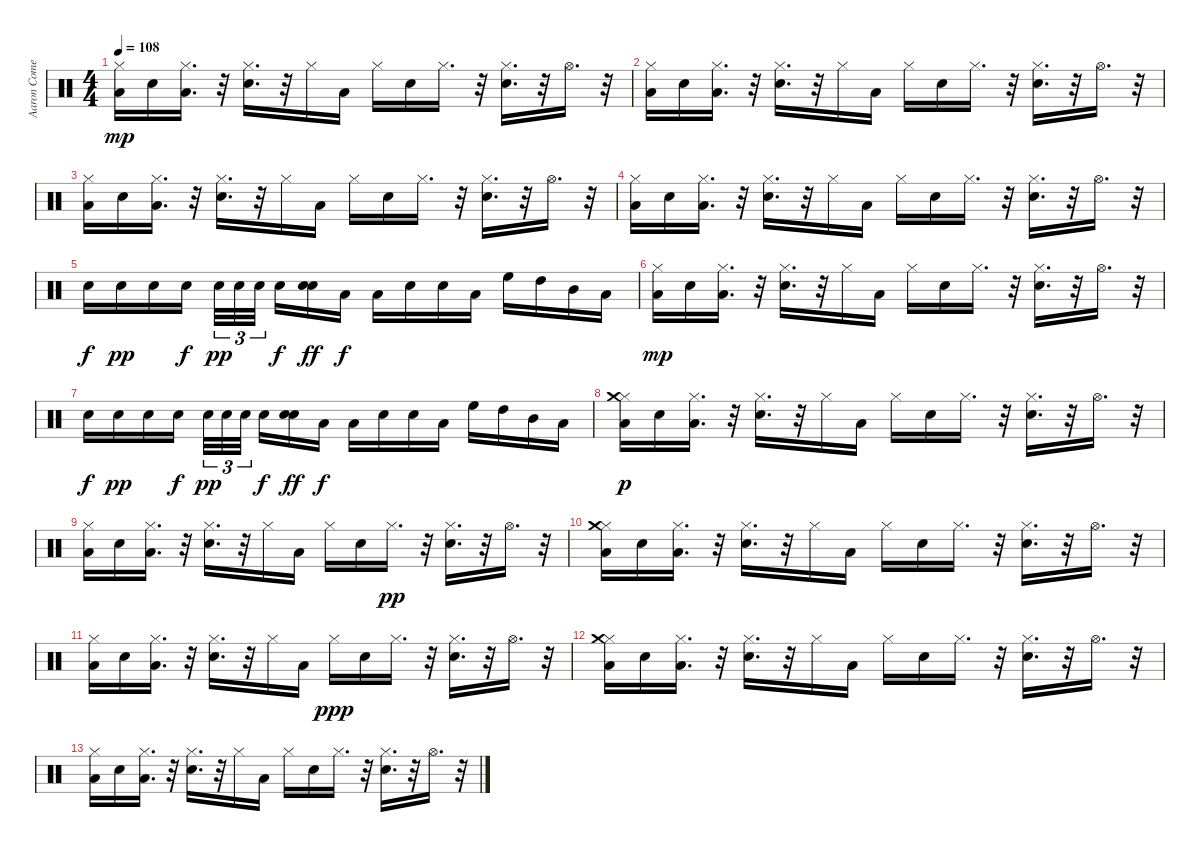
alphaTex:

\track ("Aaron Comess" "Aaron Come") {instrument percussion}
\staff {score}
\articulation defaults
\ts (4 4)
\tempo 108
\clef neutral
\ks c
("Low Tom (hit)" "Hi-Hat (closed)").16{dy mp} "Electric Snare (hit)".16 ("Low Tom (hit)" "Hi-Hat (closed)").16{d} r.32 ("Snare (hit) 2" "Hi-Hat (closed)").16{d} r.32 "Hi-Hat (closed)".16 "Low Tom (hit)".16 "Hi-Hat (closed)".16 "Snare (hit) 2".16 "Hi-Hat (closed)".16{d} r.32 ("Snare (hit) 2" "Hi-Hat (closed)").16{d} r.32 "Hi-Hat (open)".16{d} r.32 |
("Low Tom (hit)" "Hi-Hat (closed)").16 "Electric Snare (hit)".16 ("Low Tom (hit)" "Hi-Hat (closed)").16{d} r.32 ("Snare (hit) 2" "Hi-Hat (closed)").16{d} r.32 "Hi-Hat (closed)".16 "Low Tom (hit)".16 "Hi-Hat (closed)".16 "Snare (hit) 2".16 "Hi-Hat (closed)".16{d} r.32 ("Snare (hit) 2" "Hi-Hat (closed)").16{d} r.32 "Hi-Hat (open)".16{d} r.32 |
("Low Tom (hit)" "Hi-Hat (closed)").16 "Electric Snare (hit)".16 ("Low Tom (hit)" "Hi-Hat (closed)").16{d} r.32 ("Snare (hit) 2" "Hi-Hat (closed)").16{d} r.32 "Hi-Hat (closed)".16 "Low Tom (hit)".16 "Hi-Hat (closed)".16 "Snare (hit) 2".16 "Hi-Hat (closed)".16{d} r.32 ("Snare (hit) 2" "Hi-Hat (closed)").16{d} r.32 "Hi-Hat (open)".16{d} r.32 |
("Low Tom (hit)" "Hi-Hat (closed)").16 "Electric Snare (hit)".16 ("Low Tom (hit)" "Hi-Hat (closed)").16{d} r.32 ("Snare (hit) 2" "Hi-Hat (closed)").16{d} r.32 "Hi-Hat (closed)".16 "Low Tom (hit)".16 "Hi-Hat (closed)".16 "Snare (hit) 2".16 "Hi-Hat (closed)".16{d} r.32 ("Snare (hit) 2" "Hi-Hat (closed)").16{d} r.32 "Hi-Hat (open)".16{d} r.32 |
"Snare (hit) 2".16{dy f} "Snare (hit) 2".16{dy pp} "Snare (hit) 2".16 "Snare (hit) 2".16{dy f} "Snare (hit) 2".32{tu (3 2) dy pp} "Snare (hit) 2".32{tu (3 2)} "Snare (hit) 2".32{tu (3 2) beam splitsecondary} "Snare (hit) 2".16{dy f} ("Snare (hit) 2" "Electric Snare (hit)").16{dy ff} "Low Tom (hit)".16{dy f} "Low Tom (hit)".16 "Snare (hit) 2".16 "Snare (hit) 2".16 "Low Tom (hit)".16 "High Floor Tom (hit)".16 "High Tom (hit)".16 "Mid Tom (hit)".16 "Low Tom (hit)".16 |
("Low Tom (hit)" "Hi-Hat (closed)").16{dy mp} "Electric Snare (hit)".16 ("Low Tom (hit)" "Hi-Hat (closed)").16{d} r.32 ("Snare (hit) 2" "Hi-Hat (closed)").16{d} r.32 "Hi-Hat (closed)".16 "Low Tom (hit)".16 "Hi-Hat (closed)".16 "Snare (hit) 2".16 "Hi-Hat (closed)".16{d} r.32 ("Snare (hit) 2" "Hi-Hat (closed)").16{d} r.32 "Hi-Hat (open)".16{d} r.32 |
"Snare (hit) 2".16{dy f} "Snare (hit) 2".16{dy pp} "Snare (hit) 2".16 "Snare (hit) 2".16{dy f} "Snare (hit) 2".32{tu (3 2) dy pp} "Snare (hit) 2".32{tu (3 2)} "Snare (hit) 2".32{tu (3 2) beam splitsecondary} "Snare (hit) 2".16{dy f} ("Snare (hit) 2" "Electric Snare (hit)").16{dy ff} "Low Tom (hit)".16{dy f} "Low Tom (hit)".16 "Snare (hit) 2".16 "Snare (hit) 2".16 "Low Tom (hit)".16 "High Floor Tom (hit)".16 "High Tom (hit)".16 "Mid Tom (hit)".16 "Low Tom (hit)".16 |
("Low Tom (hit)" "Hi-Hat (closed)" "Crash medium (hit)").16{dy p} "Electric Snare (hit)".16 ("Low Tom (hit)" "Hi-Hat (closed)").16{d} r.32 ("Snare (hit) 2" "Hi-Hat (closed)").16{d} r.32 "Hi-Hat (closed)".16 "Low Tom (hit)".16 "Hi-Hat (closed)".16 "Snare (hit) 2".16 "Hi-Hat (closed)".16{d} r.32 ("Snare (hit) 2" "Hi-Hat (closed)").16{d} r.32 "Hi-Hat (open)".16{d} r.32 |
("Low Tom (hit)" "Hi-Hat (closed)").16 "Electric Snare (hit)".16 ("Low Tom (hit)" "Hi-Hat (closed)").16{d} r.32 ("Snare (hit) 2" "Hi-Hat (closed)").16{d} r.32 "Hi-Hat (closed)".16 "Low Tom (hit)".16 "Hi-Hat (closed)".16 "Snare (hit) 2".16 "Hi-Hat (closed)".16{d dy pp} r.32 ("Snare (hit) 2" "Hi-Hat (closed)").16{d} r.32 "Hi-Hat (open)".16{d} r.32 |
("Low Tom (hit)" "Hi-Hat (closed)" "Crash medium (hit)").16 "Electric Snare (hit)".16 ("Low Tom (hit)" "Hi-Hat (closed)").16{d} r.32 ("Snare (hit) 2" "Hi-Hat (closed)").16{d} r.32 "Hi-Hat (closed)".16 "Low Tom (hit)".16 "Hi-Hat (closed)".16 "Snare (hit) 2".16 "Hi-Hat (closed)".16{d} r.32 ("Snare (hit) 2" "Hi-Hat (closed)").16{d} r.32 "Hi-Hat (open)".16{d} r.32 |
("Low Tom (hit)" "Hi-Hat (closed)").16 "Electric Snare (hit)".16 ("Low Tom (hit)" "Hi-Hat (closed)").16{d} r.32 ("Snare (hit) 2" "Hi-Hat (closed)").16{d} r.32 "Hi-Hat (closed)".16 "Low Tom (hit)".16 "Hi-Hat (closed)".16{dy ppp} "Snare (hit) 2".16 "Hi-Hat (closed)".16{d} r.32 ("Snare (hit) 2" "Hi-Hat (closed)").16{d} r.32 "Hi-Hat (open)".16{d} r.32 |
("Low Tom (hit)" "Hi-Hat (closed)" "Crash medium (hit)").16 "Electric Snare (hit)".16 ("Low Tom (hit)" "Hi-Hat (closed)").16{d} r.32 ("Snare (hit) 2" "Hi-Hat (closed)").16{d} r.32 "Hi-Hat (closed)".16 "Low Tom (hit)".16 "Hi-Hat (closed)".16 "Snare (hit) 2".16 "Hi-Hat (closed)".16{d} r.32 ("Snare (hit) 2" "Hi-Hat (closed)").16{d} r.32 "Hi-Hat (open)".16{d} r.32 |
("Low Tom (hit)" "Hi-Hat (closed)").16 "Electric Snare (hit)".16 ("Low Tom (hit)" "Hi-Hat (closed)").16{d} r.32 ("Snare (hit) 2" "Hi-Hat (closed)").16{d} r.32 "Hi-Hat (closed)".16 "Low Tom (hit)".16 "Hi-Hat (closed)".16 "Snare (hit) 2".16 "Hi-Hat (closed)".16{d} r.32 ("Snare (hit) 2" "Hi-Hat (closed)").16{d} r.32 "Hi-Hat (open)".16{d} r.32
